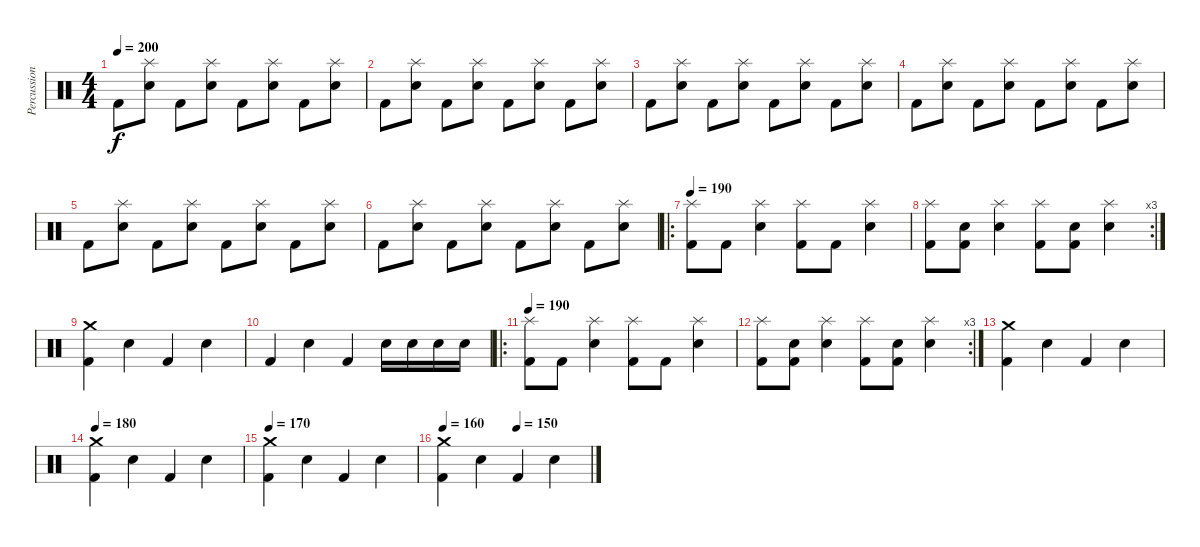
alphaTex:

\track ("Percussion" "Percussion") {instrument percussion}
\staff {score}
\articulation defaults
\ts (4 4)
\tempo 200
\clef neutral
\ks c "Kick (hit) 2".8{dy f}
("Splash (hit)" "Electric Snare (hit)").8 "Kick (hit) 2".8 ("Splash (hit)" "Electric Snare (hit)").8 "Kick (hit) 2".8 ("Splash (hit)" "Electric Snare (hit)").8 "Kick (hit) 2".8 ("Splash (hit)" "Electric Snare (hit)").8 |
"Kick (hit) 2".8 ("Splash (hit)" "Electric Snare (hit)").8 "Kick (hit) 2".8 ("Splash (hit)" "Electric Snare (hit)").8 "Kick (hit) 2".8 ("Splash (hit)" "Electric Snare (hit)").8 "Kick (hit) 2".8 ("Splash (hit)" "Electric Snare (hit)").8 |
"Kick (hit) 2".8 ("Splash (hit)" "Electric Snare (hit)").8 "Kick (hit) 2".8 ("Splash (hit)" "Electric Snare (hit)").8 "Kick (hit) 2".8 ("Splash (hit)" "Electric Snare (hit)").8 "Kick (hit) 2".8 ("Splash (hit)" "Electric Snare (hit)").8 |
"Kick (hit) 2".8 ("Splash (hit)" "Electric Snare (hit)").8 "Kick (hit) 2".8 ("Splash (hit)" "Electric Snare (hit)").8 "Kick (hit) 2".8 ("Splash (hit)" "Electric Snare (hit)").8 "Kick (hit) 2".8 ("Splash (hit)" "Electric Snare (hit)").8 |
"Kick (hit) 2".8 ("Splash (hit)" "Electric Snare (hit)").8 "Kick (hit) 2".8 ("Splash (hit)" "Electric Snare (hit)").8 "Kick (hit) 2".8 ("Splash (hit)" "Electric Snare (hit)").8 "Kick (hit) 2".8 ("Splash (hit)" "Electric Snare (hit)").8 |
"Kick (hit) 2".8 ("Splash (hit)" "Electric Snare (hit)").8 "Kick (hit) 2".8 ("Splash (hit)" "Electric Snare (hit)").8 "Kick (hit) 2".8 ("Splash (hit)" "Electric Snare (hit)").8 "Kick (hit) 2".8 ("Splash (hit)" "Electric Snare (hit)").8 |
\ro
\tempo 190
("Splash (hit)" "Kick (hit) 2").8 "Kick (hit) 2".8 ("Splash (hit)" "Electric Snare (hit)").4 ("Splash (hit)" "Kick (hit) 2").8 "Kick (hit) 2".8 ("Splash (hit)" "Electric Snare (hit)").4 |
\rc 3
("Splash (hit)" "Kick (hit) 2").8 ("Electric Snare (hit)" "Kick (hit) 2").8 ("Splash (hit)" "Electric Snare (hit)").4 ("Splash (hit)" "Kick (hit) 2").8 ("Electric Snare (hit)" "Kick (hit) 2").8 ("Splash (hit)" "Electric Snare (hit)").4 |
("Crash medium (hit)" "Kick (hit) 2").4 "Electric Snare (hit)".4 "Kick (hit) 2".4 "Electric Snare (hit)".4 |
"Kick (hit) 2".4 "Electric Snare (hit)".4 "Kick (hit) 2".4 "Electric Snare (hit)".16 "Electric Snare (hit)".16 "Electric Snare (hit)".16 "Electric Snare (hit)".16 |
\ro
\tempo 190
("Splash (hit)" "Kick (hit) 2").8 "Kick (hit) 2".8 ("Splash (hit)" "Electric Snare (hit)").4 ("Splash (hit)" "Kick (hit) 2").8 "Kick (hit) 2".8 ("Splash (hit)" "Electric Snare (hit)").4 |
\rc 3
("Splash (hit)" "Kick (hit) 2").8 ("Electric Snare (hit)" "Kick (hit) 2").8 ("Splash (hit)" "Electric Snare (hit)").4 ("Splash (hit)" "Kick (hit) 2").8 ("Electric Snare (hit)" "Kick (hit) 2").8 ("Splash (hit)" "Electric Snare (hit)").4 |
("Crash medium (hit)" "Kick (hit) 2").4 "Electric Snare (hit)".4 "Kick (hit) 2".4 "Electric Snare (hit)".4 |
\tempo 180
("Crash medium (hit)" "Kick (hit) 2").4 "Electric Snare (hit)".4 "Kick (hit) 2".4 "Electric Snare (hit)".4 |
\tempo 170
("Crash medium (hit)" "Kick (hit) 2").4 "Electric Snare (hit)".4 "Kick (hit) 2".4 "Electric Snare (hit)".4 |
\tempo 160
\tempo (150 0.5)
("Crash medium (hit)" "Kick (hit) 2").4 "Electric Snare (hit)".4 "Kick (hit) 2".4 "Electric Snare (hit)".4
